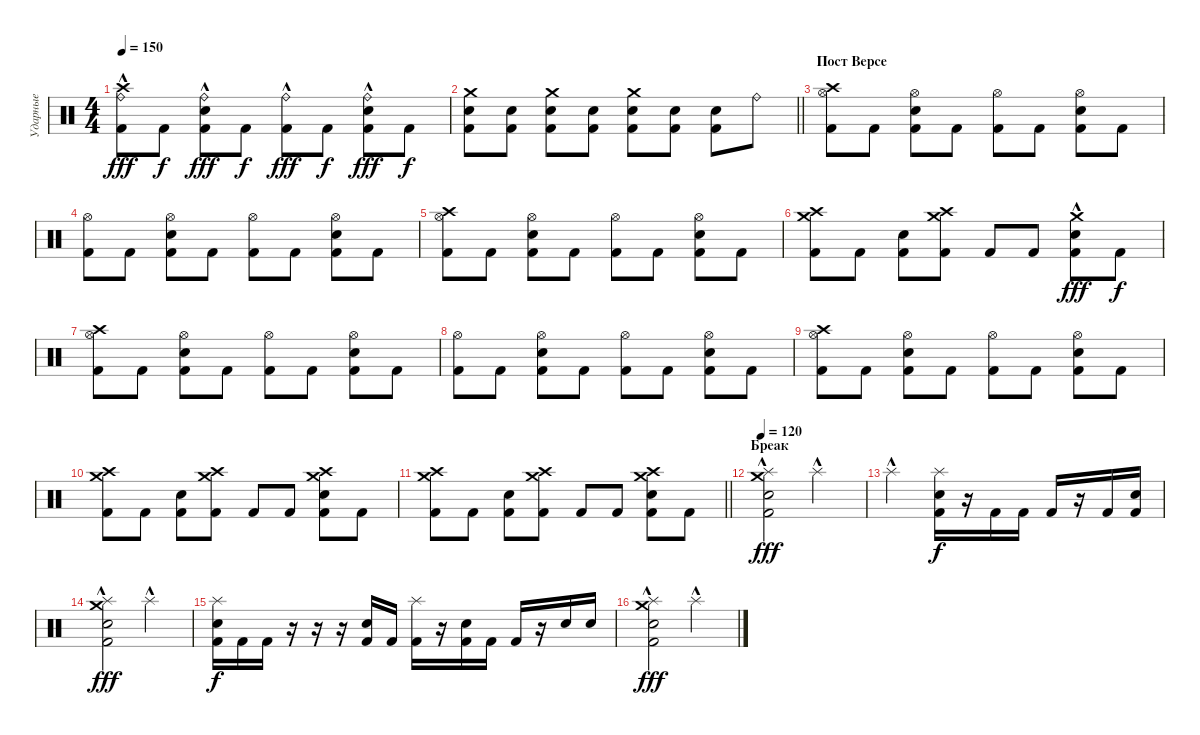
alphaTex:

\track ("Ударные" "Ударные") {instrument percussion}
\staff {score}
\articulation defaults
\ts (4 4)
\tempo 150
\clef neutral
\ks c
("Crash high (hit)" "Ride (bell)"{hac} "Kick (hit) 2").8{dy fff} "Kick (hit) 2".8{dy f} ("Ride (bell)"{hac} "Snare (hit) 2" "Kick (hit) 2").8{dy fff} "Kick (hit) 2".8{dy f} ("Ride (bell)"{hac} "Kick (hit) 2").8{dy fff} "Kick (hit) 2".8{dy f} ("Ride (bell)"{hac} "Snare (hit) 2" "Kick (hit) 2").8{dy fff} "Kick (hit) 2".8{dy f} |
\barLineRight lightlight
("Crash medium (hit)" "Snare (hit) 2" "Kick (hit) 2").8 ("Snare (hit) 2" "Kick (hit) 2").8 ("Crash medium (hit)" "Snare (hit) 2" "Kick (hit) 2").8 ("Snare (hit) 2" "Kick (hit) 2").8 ("Crash medium (hit)" "Snare (hit) 2" "Kick (hit) 2").8 ("Snare (hit) 2" "Kick (hit) 2").8 ("Snare (hit) 2" "Kick (hit) 2").8 "Ride (bell)".8 |
\section ("" "Пост Версе")
("Crash high (hit)" "Hi-Hat (open)" "Kick (hit) 2").8 "Kick (hit) 2".8 ("Hi-Hat (open)" "Snare (hit) 2" "Kick (hit) 2").8 "Kick (hit) 2".8 ("Hi-Hat (open)" "Kick (hit) 2").8 "Kick (hit) 2".8 ("Hi-Hat (open)" "Snare (hit) 2" "Kick (hit) 2").8 "Kick (hit) 2".8 |
("Hi-Hat (open)" "Kick (hit) 2").8 "Kick (hit) 2".8 ("Hi-Hat (open)" "Snare (hit) 2" "Kick (hit) 2").8 "Kick (hit) 2".8 ("Hi-Hat (open)" "Kick (hit) 2").8 "Kick (hit) 2".8 ("Hi-Hat (open)" "Snare (hit) 2" "Kick (hit) 2").8 "Kick (hit) 2".8 |
("Crash high (hit)" "Hi-Hat (open)" "Kick (hit) 2").8 "Kick (hit) 2".8 ("Hi-Hat (open)" "Snare (hit) 2" "Kick (hit) 2").8 "Kick (hit) 2".8 ("Hi-Hat (open)" "Kick (hit) 2").8 "Kick (hit) 2".8 ("Hi-Hat (open)" "Snare (hit) 2" "Kick (hit) 2").8 "Kick (hit) 2".8 |
("Crash high (hit)" "Crash medium (hit)" "Kick (hit) 2").8 "Kick (hit) 2".8 ("Snare (hit) 2" "Kick (hit) 2").8 ("Crash high (hit)" "Crash medium (hit)" "Kick (hit) 2").8 "Kick (hit) 2".8 "Kick (hit) 2".8 ("Crash medium (hit)"{hac} "Snare (hit) 2" "Kick (hit) 2").8{dy fff} "Kick (hit) 2".8{dy f} |
("Crash high (hit)" "Hi-Hat (open)" "Kick (hit) 2").8 "Kick (hit) 2".8 ("Hi-Hat (open)" "Snare (hit) 2" "Kick (hit) 2").8 "Kick (hit) 2".8 ("Hi-Hat (open)" "Kick (hit) 2").8 "Kick (hit) 2".8 ("Hi-Hat (open)" "Snare (hit) 2" "Kick (hit) 2").8 "Kick (hit) 2".8 |
("Hi-Hat (open)" "Kick (hit) 2").8 "Kick (hit) 2".8 ("Hi-Hat (open)" "Snare (hit) 2" "Kick (hit) 2").8 "Kick (hit) 2".8 ("Hi-Hat (open)" "Kick (hit) 2").8 "Kick (hit) 2".8 ("Hi-Hat (open)" "Snare (hit) 2" "Kick (hit) 2").8 "Kick (hit) 2".8 |
("Crash high (hit)" "Hi-Hat (open)" "Kick (hit) 2").8 "Kick (hit) 2".8 ("Hi-Hat (open)" "Snare (hit) 2" "Kick (hit) 2").8 "Kick (hit) 2".8 ("Hi-Hat (open)" "Kick (hit) 2").8 "Kick (hit) 2".8 ("Hi-Hat (open)" "Snare (hit) 2" "Kick (hit) 2").8 "Kick (hit) 2".8 |
("Crash high (hit)" "Crash medium (hit)" "Kick (hit) 2").8 "Kick (hit) 2".8 ("Snare (hit) 2" "Kick (hit) 2").8 ("Crash high (hit)" "Crash medium (hit)" "Kick (hit) 2").8 "Kick (hit) 2".8 "Kick (hit) 2".8 ("Crash high (hit)" "Crash medium (hit)" "Snare (hit) 2" "Kick (hit) 2").8 "Kick (hit) 2".8 |
\barLineRight lightlight
("Crash high (hit)" "Crash medium (hit)" "Kick (hit) 2").8 "Kick (hit) 2".8 ("Snare (hit) 2" "Kick (hit) 2").8 ("Crash high (hit)" "Crash medium (hit)" "Kick (hit) 2").8 "Kick (hit) 2".8 "Kick (hit) 2".8 ("Crash high (hit)" "Crash medium (hit)" "Snare (hit) 2" "Kick (hit) 2").8 "Kick (hit) 2".8 |
\section ("" "Бреак")
\tempo 120
("Crash medium (hit)" "Splash (hit)"{hac} "Snare (hit) 2" "Kick (hit) 2").2{dy fff} "Splash (hit)"{hac}.2 |
"Splash (hit)"{hac}.2 ("Splash (hit)" "Snare (hit) 2" "Kick (hit) 2").16{dy f} r.16 "Kick (hit) 2".16 "Kick (hit) 2".16 "Kick (hit) 2".16 r.16 "Kick (hit) 2".16 ("Snare (hit) 2" "Kick (hit) 2").16 |
("Crash medium (hit)" "Splash (hit)"{hac} "Snare (hit) 2" "Kick (hit) 2").2{dy fff} "Splash (hit)"{hac}.2 |
("Splash (hit)" "Snare (hit) 2" "Kick (hit) 2").16{dy f} "Kick (hit) 2".16 "Kick (hit) 2".16 r.16 r.16 r.16 ("Snare (hit) 2" "Kick (hit) 2").16 "Kick (hit) 2".16 ("Splash (hit)" "Kick (hit) 2").16 r.16 ("Snare (hit) 2" "Kick (hit) 2").16 "Kick (hit) 2".16 "Kick (hit) 2".16 r.16 "Snare (hit) 2".16 "Snare (hit) 2".16 |
("Crash medium (hit)" "Splash (hit)"{hac} "Snare (hit) 2" "Kick (hit) 2").2{dy fff} "Splash (hit)"{hac}.2
